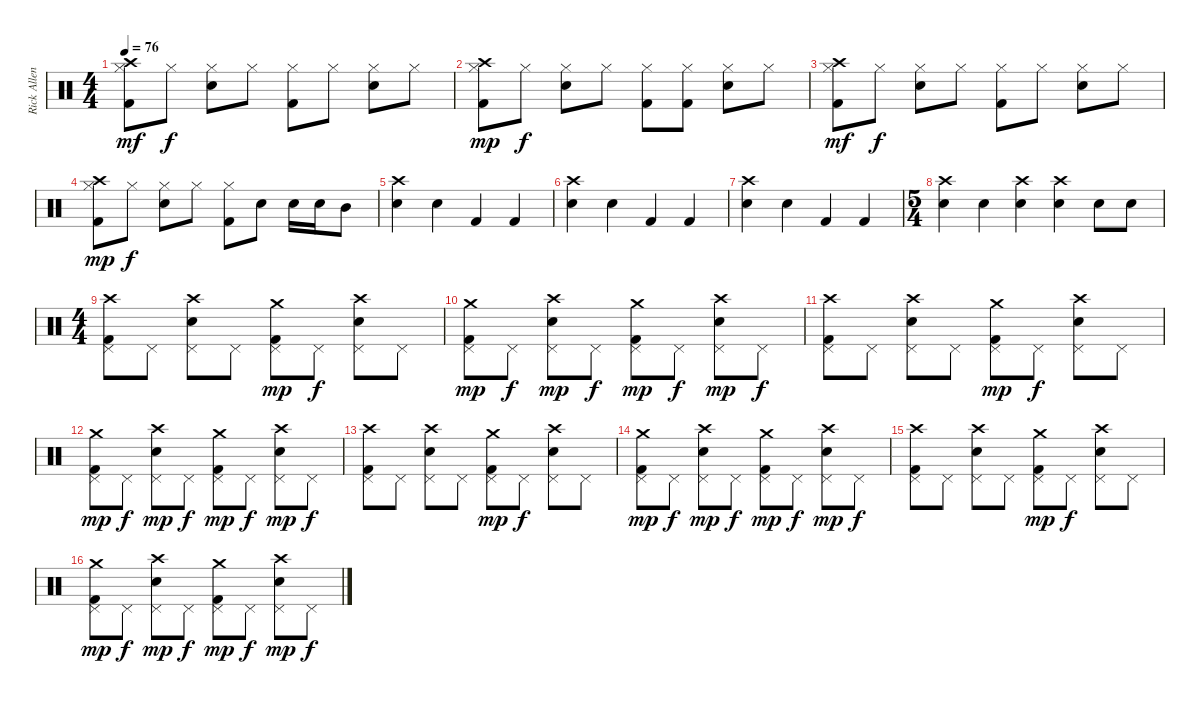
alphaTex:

\track ("Rick Allen" "Rick Allen") {instrument percussion}
\staff {score}
\articulation defaults
\ts (4 4)
\tempo 76
\clef neutral
\ks c
("Crash high (hit)" "Hi-Hat (closed)" "Kick (hit) 2").8{dy mf} "Hi-Hat (closed)".8{dy f} ("Hi-Hat (closed)" "Snare (hit) 2").8 "Hi-Hat (closed)".8 ("Hi-Hat (closed)" "Kick (hit) 2").8 "Hi-Hat (closed)".8 ("Hi-Hat (closed)" "Snare (hit) 2").8 "Hi-Hat (closed)".8 |
("Crash high (hit)" "Hi-Hat (closed)" "Kick (hit) 2").8{dy mp} "Hi-Hat (closed)".8{dy f} ("Hi-Hat (closed)" "Snare (hit) 2").8 "Hi-Hat (closed)".8 ("Hi-Hat (closed)" "Kick (hit) 2").8 ("Hi-Hat (closed)" "Kick (hit) 2").8 ("Hi-Hat (closed)" "Snare (hit) 2").8 "Hi-Hat (closed)".8 |
("Crash high (hit)" "Hi-Hat (closed)" "Kick (hit) 2").8{dy mf} "Hi-Hat (closed)".8{dy f} ("Hi-Hat (closed)" "Snare (hit) 2").8 "Hi-Hat (closed)".8 ("Hi-Hat (closed)" "Kick (hit) 2").8 "Hi-Hat (closed)".8 ("Hi-Hat (closed)" "Snare (hit) 2").8 "Hi-Hat (closed)".8 |
("Crash high (hit)" "Hi-Hat (closed)" "Kick (hit) 2").8{dy mp} "Hi-Hat (closed)".8{dy f} ("Hi-Hat (closed)" "Snare (hit) 2").8 "Hi-Hat (closed)".8 ("Hi-Hat (closed)" "Kick (hit) 2").8 "Snare (hit) 2".8 "Snare (hit) 2".16 "Snare (hit) 2".16 "Mid Tom (hit)".8 |
("Crash high (hit)" "Snare (hit) 2").4 "Snare (hit) 2".4 "Kick (hit) 2".4 "Kick (hit) 2".4 |
("Crash high (hit)" "Snare (hit) 2").4 "Snare (hit) 2".4 "Kick (hit) 2".4 "Kick (hit) 2".4 |
("Crash high (hit)" "Snare (hit) 2").4 "Snare (hit) 2".4 "Kick (hit) 2".4 "Kick (hit) 2".4 |
\ts (5 4)
("Crash high (hit)" "Snare (hit) 2").4 "Snare (hit) 2".4 ("Crash high (hit)" "Snare (hit) 2").4 ("Crash high (hit)" "Snare (hit) 2").4 "Snare (hit) 2".8 "Snare (hit) 2".8 |
\ts (4 4)
("Crash high (hit)" "Pedal Hi-Hat (hit)" "Kick (hit) 2").8 "Pedal Hi-Hat (hit)".8 ("Crash high (hit)" "Pedal Hi-Hat (hit)" "Snare (hit) 2").8 "Pedal Hi-Hat (hit)".8 ("Crash medium (hit)" "Pedal Hi-Hat (hit)" "Kick (hit) 2").8{dy mp} "Pedal Hi-Hat (hit)".8{dy f} ("Crash high (hit)" "Pedal Hi-Hat (hit)" "Snare (hit) 2").8 "Pedal Hi-Hat (hit)".8 |
("Crash medium (hit)" "Pedal Hi-Hat (hit)" "Kick (hit) 2").8{dy mp} "Pedal Hi-Hat (hit)".8{dy f} ("Crash high (hit)" "Pedal Hi-Hat (hit)" "Snare (hit) 2").8{dy mp} "Pedal Hi-Hat (hit)".8{dy f} ("Crash medium (hit)" "Pedal Hi-Hat (hit)" "Kick (hit) 2").8{dy mp} "Pedal Hi-Hat (hit)".8{dy f} ("Crash high (hit)" "Pedal Hi-Hat (hit)" "Snare (hit) 2").8{dy mp} "Pedal Hi-Hat (hit)".8{dy f} |
("Crash high (hit)" "Pedal Hi-Hat (hit)" "Kick (hit) 2").8 "Pedal Hi-Hat (hit)".8 ("Crash high (hit)" "Pedal Hi-Hat (hit)" "Snare (hit) 2").8 "Pedal Hi-Hat (hit)".8 ("Crash medium (hit)" "Pedal Hi-Hat (hit)" "Kick (hit) 2").8{dy mp} "Pedal Hi-Hat (hit)".8{dy f} ("Crash high (hit)" "Pedal Hi-Hat (hit)" "Snare (hit) 2").8 "Pedal Hi-Hat (hit)".8 |
("Crash medium (hit)" "Pedal Hi-Hat (hit)" "Kick (hit) 2").8{dy mp} "Pedal Hi-Hat (hit)".8{dy f} ("Crash high (hit)" "Pedal Hi-Hat (hit)" "Snare (hit) 2").8{dy mp} "Pedal Hi-Hat (hit)".8{dy f} ("Crash medium (hit)" "Pedal Hi-Hat (hit)" "Kick (hit) 2").8{dy mp} "Pedal Hi-Hat (hit)".8{dy f} ("Crash high (hit)" "Pedal Hi-Hat (hit)" "Snare (hit) 2").8{dy mp} "Pedal Hi-Hat (hit)".8{dy f} |
("Crash high (hit)" "Pedal Hi-Hat (hit)" "Kick (hit) 2").8 "Pedal Hi-Hat (hit)".8 ("Crash high (hit)" "Pedal Hi-Hat (hit)" "Snare (hit) 2").8 "Pedal Hi-Hat (hit)".8 ("Crash medium (hit)" "Pedal Hi-Hat (hit)" "Kick (hit) 2").8{dy mp} "Pedal Hi-Hat (hit)".8{dy f} ("Crash high (hit)" "Pedal Hi-Hat (hit)" "Snare (hit) 2").8 "Pedal Hi-Hat (hit)".8 |
("Crash medium (hit)" "Pedal Hi-Hat (hit)" "Kick (hit) 2").8{dy mp} "Pedal Hi-Hat (hit)".8{dy f} ("Crash high (hit)" "Pedal Hi-Hat (hit)" "Snare (hit) 2").8{dy mp} "Pedal Hi-Hat (hit)".8{dy f} ("Crash medium (hit)" "Pedal Hi-Hat (hit)" "Kick (hit) 2").8{dy mp} "Pedal Hi-Hat (hit)".8{dy f} ("Crash high (hit)" "Pedal Hi-Hat (hit)" "Snare (hit) 2").8{dy mp} "Pedal Hi-Hat (hit)".8{dy f} |
("Crash high (hit)" "Pedal Hi-Hat (hit)" "Kick (hit) 2").8 "Pedal Hi-Hat (hit)".8 ("Crash high (hit)" "Pedal Hi-Hat (hit)" "Snare (hit) 2").8 "Pedal Hi-Hat (hit)".8 ("Crash medium (hit)" "Pedal Hi-Hat (hit)" "Kick (hit) 2").8{dy mp} "Pedal Hi-Hat (hit)".8{dy f} ("Crash high (hit)" "Pedal Hi-Hat (hit)" "Snare (hit) 2").8 "Pedal Hi-Hat (hit)".8 |
("Crash medium (hit)" "Pedal Hi-Hat (hit)" "Kick (hit) 2").8{dy mp} "Pedal Hi-Hat (hit)".8{dy f} ("Crash high (hit)" "Pedal Hi-Hat (hit)" "Snare (hit) 2").8{dy mp} "Pedal Hi-Hat (hit)".8{dy f} ("Crash medium (hit)" "Pedal Hi-Hat (hit)" "Kick (hit) 2").8{dy mp} "Pedal Hi-Hat (hit)".8{dy f} ("Crash high (hit)" "Pedal Hi-Hat (hit)" "Snare (hit) 2").8{dy mp} "Pedal Hi-Hat (hit)".8{dy f}
